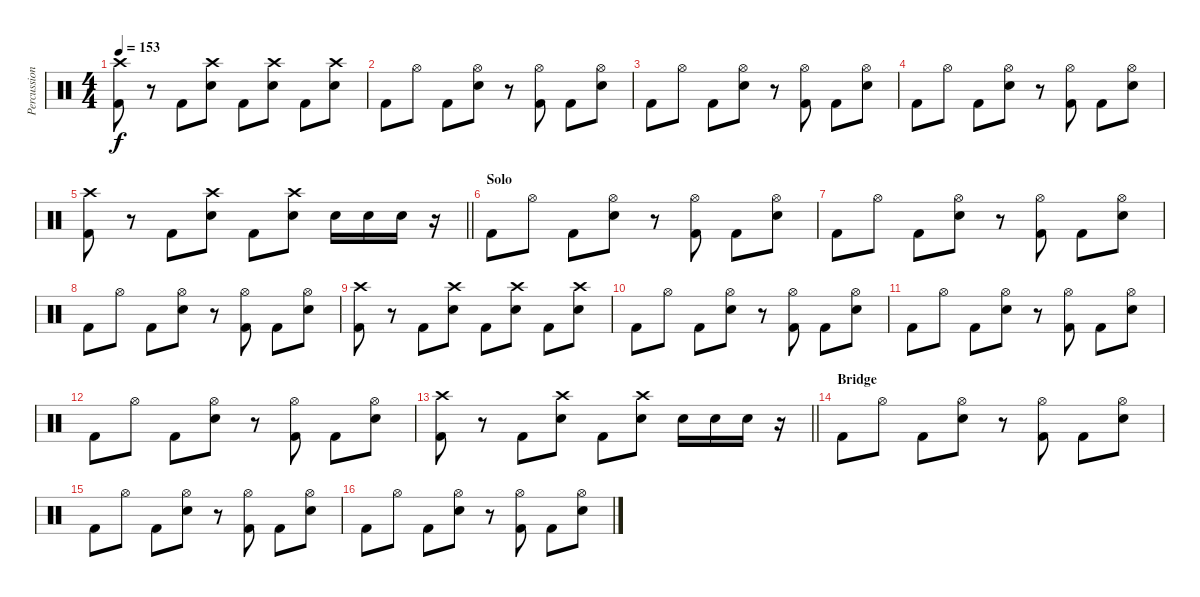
\track ("Percussion" "Percussion") {instrument percussion}
\staff {score}
\articulation defaults
\ts (4 4)
\tempo 153
\clef neutral
\ks c
("Crash high (hit)" "Kick (hit) 2").8{dy f} r.8 "Kick (hit) 2".8 ("Crash high (hit)" "Electric Snare (hit)").8 "Kick (hit) 2".8 ("Crash high (hit)" "Electric Snare (hit)").8 "Kick (hit) 2".8 ("Crash high (hit)" "Electric Snare (hit)").8 |
"Kick (hit) 2".8 "Hi-Hat (open)".8 "Kick (hit) 2".8 ("Hi-Hat (open)" "Electric Snare (hit)").8 r.8 ("Hi-Hat (open)" "Kick (hit) 2").8 "Kick (hit) 2".8 ("Hi-Hat (open)" "Electric Snare (hit)").8 |
"Kick (hit) 2".8 "Hi-Hat (open)".8 "Kick (hit) 2".8 ("Hi-Hat (open)" "Electric Snare (hit)").8 r.8 ("Hi-Hat (open)" "Kick (hit) 2").8 "Kick (hit) 2".8 ("Hi-Hat (open)" "Electric Snare (hit)").8 |
"Kick (hit) 2".8 "Hi-Hat (open)".8 "Kick (hit) 2".8 ("Hi-Hat (open)" "Electric Snare (hit)").8 r.8 ("Hi-Hat (open)" "Kick (hit) 2").8 "Kick (hit) 2".8 ("Hi-Hat (open)" "Electric Snare (hit)").8 |
\barLineRight lightlight
("Crash high (hit)" "Kick (hit) 2").8 r.8 "Kick (hit) 2".8 ("Crash high (hit)" "Electric Snare (hit)").8 "Kick (hit) 2".8 ("Crash high (hit)" "Electric Snare (hit)").8 "Electric Snare (hit)".16 "Electric Snare (hit)".16 "Electric Snare (hit)".16 r.16 |
\section ("" "Solo")
"Kick (hit) 2".8 "Hi-Hat (open)".8 "Kick (hit) 2".8 ("Hi-Hat (open)" "Electric Snare (hit)").8 r.8 ("Hi-Hat (open)" "Kick (hit) 2").8 "Kick (hit) 2".8 ("Hi-Hat (open)" "Electric Snare (hit)").8 |
"Kick (hit) 2".8 "Hi-Hat (open)".8 "Kick (hit) 2".8 ("Hi-Hat (open)" "Electric Snare (hit)").8 r.8 ("Hi-Hat (open)" "Kick (hit) 2").8 "Kick (hit) 2".8 ("Hi-Hat (open)" "Electric Snare (hit)").8 |
"Kick (hit) 2".8 "Hi-Hat (open)".8 "Kick (hit) 2".8 ("Hi-Hat (open)" "Electric Snare (hit)").8 r.8 ("Hi-Hat (open)" "Kick (hit) 2").8 "Kick (hit) 2".8 ("Hi-Hat (open)" "Electric Snare (hit)").8 |
("Crash high (hit)" "Kick (hit) 2").8 r.8 "Kick (hit) 2".8 ("Crash high (hit)" "Electric Snare (hit)").8 "Kick (hit) 2".8 ("Crash high (hit)" "Electric Snare (hit)").8 "Kick (hit) 2".8 ("Crash high (hit)" "Electric Snare (hit)").8 |
"Kick (hit) 2".8 "Hi-Hat (open)".8 "Kick (hit) 2".8 ("Hi-Hat (open)" "Electric Snare (hit)").8 r.8 ("Hi-Hat (open)" "Kick (hit) 2").8 "Kick (hit) 2".8 ("Hi-Hat (open)" "Electric Snare (hit)").8 |
"Kick (hit) 2".8 "Hi-Hat (open)".8 "Kick (hit) 2".8 ("Hi-Hat (open)" "Electric Snare (hit)").8 r.8 ("Hi-Hat (open)" "Kick (hit) 2").8 "Kick (hit) 2".8 ("Hi-Hat (open)" "Electric Snare (hit)").8 |
"Kick (hit) 2".8 "Hi-Hat (open)".8 "Kick (hit) 2".8 ("Hi-Hat (open)" "Electric Snare (hit)").8 r.8 ("Hi-Hat (open)" "Kick (hit) 2").8 "Kick (hit) 2".8 ("Hi-Hat (open)" "Electric Snare (hit)").8 |
\barLineRight lightlight
("Crash high (hit)" "Kick (hit) 2").8 r.8 "Kick (hit) 2".8 ("Crash high (hit)" "Electric Snare (hit)").8 "Kick (hit) 2".8 ("Crash high (hit)" "Electric Snare (hit)").8 "Electric Snare (hit)".16 "Electric Snare (hit)".16 "Electric Snare (hit)".16 r.16 |
\section ("" "Bridge")
"Kick (hit) 2".8 "Hi-Hat (open)".8 "Kick (hit) 2".8 ("Hi-Hat (open)" "Electric Snare (hit)").8 r.8 ("Hi-Hat (open)" "Kick (hit) 2").8 "Kick (hit) 2".8 ("Hi-Hat (open)" "Electric Snare (hit)").8 |
"Kick (hit) 2".8 "Hi-Hat (open)".8 "Kick (hit) 2".8 ("Hi-Hat (open)" "Electric Snare (hit)").8 r.8 ("Hi-Hat (open)" "Kick (hit) 2").8 "Kick (hit) 2".8 ("Hi-Hat (open)" "Electric Snare (hit)").8 |
"Kick (hit) 2".8 "Hi-Hat (open)".8 "Kick (hit) 2".8 ("Hi-Hat (open)" "Electric Snare (hit)").8 r.8 ("Hi-Hat (open)" "Kick (hit) 2").8 "Kick (hit) 2".8 ("Hi-Hat (open)" "Electric Snare (hit)").8
